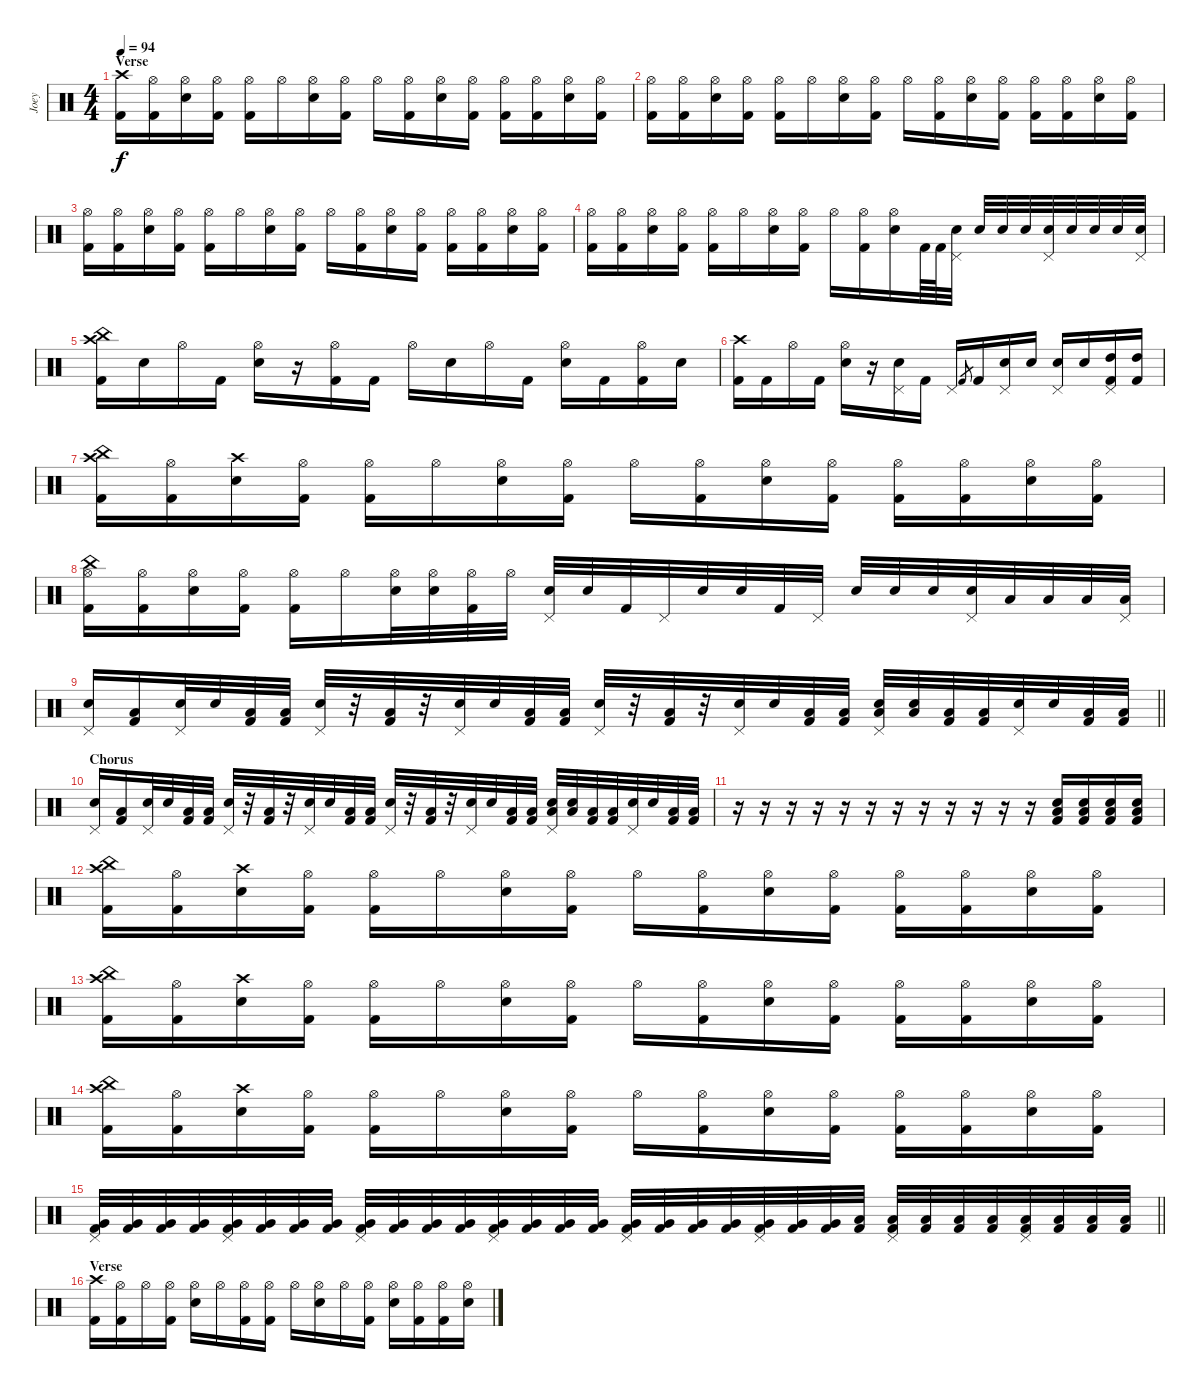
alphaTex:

\track ("Joey" "Joey") {instrument percussion}
\staff {score}
\articulation defaults
\ts (4 4)
\section ("" "Verse")
\tempo 94
\clef neutral
\ks c
("Crash high (hit)" "Kick (hit) 2").16{dy f} ("Hi-Hat (open)" "Kick (hit) 2").16 ("Hi-Hat (open)" "Electric Snare (hit)").16 ("Hi-Hat (open)" "Kick (hit) 2").16 ("Hi-Hat (open)" "Kick (hit) 2").16 "Hi-Hat (open)".16 ("Hi-Hat (open)" "Electric Snare (hit)").16 ("Hi-Hat (open)" "Kick (hit) 2").16 "Hi-Hat (open)".16 ("Hi-Hat (open)" "Kick (hit) 2").16 ("Hi-Hat (open)" "Electric Snare (hit)").16 ("Hi-Hat (open)" "Kick (hit) 2").16 ("Hi-Hat (open)" "Kick (hit) 2").16 ("Hi-Hat (open)" "Kick (hit) 2").16 ("Hi-Hat (open)" "Electric Snare (hit)").16 ("Hi-Hat (open)" "Kick (hit) 2").16 |
("Hi-Hat (open)" "Kick (hit) 2").16 ("Hi-Hat (open)" "Kick (hit) 2").16 ("Hi-Hat (open)" "Electric Snare (hit)").16 ("Hi-Hat (open)" "Kick (hit) 2").16 ("Hi-Hat (open)" "Kick (hit) 2").16 "Hi-Hat (open)".16 ("Hi-Hat (open)" "Electric Snare (hit)").16 ("Hi-Hat (open)" "Kick (hit) 2").16 "Hi-Hat (open)".16 ("Hi-Hat (open)" "Kick (hit) 2").16 ("Hi-Hat (open)" "Electric Snare (hit)").16 ("Hi-Hat (open)" "Kick (hit) 2").16 ("Hi-Hat (open)" "Kick (hit) 2").16 ("Hi-Hat (open)" "Kick (hit) 2").16 ("Hi-Hat (open)" "Electric Snare (hit)").16 ("Hi-Hat (open)" "Kick (hit) 2").16 |
("Hi-Hat (open)" "Kick (hit) 2").16 ("Hi-Hat (open)" "Kick (hit) 2").16 ("Hi-Hat (open)" "Electric Snare (hit)").16 ("Hi-Hat (open)" "Kick (hit) 2").16 ("Hi-Hat (open)" "Kick (hit) 2").16 "Hi-Hat (open)".16 ("Hi-Hat (open)" "Electric Snare (hit)").16 ("Hi-Hat (open)" "Kick (hit) 2").16 "Hi-Hat (open)".16 ("Hi-Hat (open)" "Kick (hit) 2").16 ("Hi-Hat (open)" "Electric Snare (hit)").16 ("Hi-Hat (open)" "Kick (hit) 2").16 ("Hi-Hat (open)" "Kick (hit) 2").16 ("Hi-Hat (open)" "Kick (hit) 2").16 ("Hi-Hat (open)" "Electric Snare (hit)").16 ("Hi-Hat (open)" "Kick (hit) 2").16 |
("Hi-Hat (open)" "Kick (hit) 2").16 ("Hi-Hat (open)" "Kick (hit) 2").16 ("Hi-Hat (open)" "Electric Snare (hit)").16 ("Hi-Hat (open)" "Kick (hit) 2").16 ("Hi-Hat (open)" "Kick (hit) 2").16 "Hi-Hat (open)".16 ("Hi-Hat (open)" "Electric Snare (hit)").16 ("Hi-Hat (open)" "Kick (hit) 2").16 "Hi-Hat (open)".16 ("Hi-Hat (open)" "Kick (hit) 2").16 ("Hi-Hat (open)" "Electric Snare (hit)").16 "Kick (hit) 2".64 "Kick (hit) 2".64 ("Pedal Hi-Hat (hit)" "Electric Snare (hit)").32 "Electric Snare (hit)".32 "Electric Snare (hit)".32 "Electric Snare (hit)".32 ("Pedal Hi-Hat (hit)" "Electric Snare (hit)").32 "Electric Snare (hit)".32 "Electric Snare (hit)".32 "Electric Snare (hit)".32 ("Pedal Hi-Hat (hit)" "Electric Snare (hit)").32 |
("Crash high (hit)" "China (hit)" "Kick (hit) 2").16 "Electric Snare (hit)".16 "Hi-Hat (open)".16 "Kick (hit) 2".16 ("Hi-Hat (open)" "Electric Snare (hit)").16 r.16 ("Hi-Hat (open)" "Kick (hit) 2").16 "Kick (hit) 2".16 "Hi-Hat (open)".16 "Electric Snare (hit)".16 "Hi-Hat (open)".16 "Kick (hit) 2".16 ("Hi-Hat (open)" "Electric Snare (hit)").16 "Kick (hit) 2".16 ("Hi-Hat (open)" "Kick (hit) 2").16 "Electric Snare (hit)".16 |
("Crash high (hit)" "Kick (hit) 2").16 "Kick (hit) 2".16 "Hi-Hat (open)".16 "Kick (hit) 2".16 ("Hi-Hat (open)" "Electric Snare (hit)").16 r.16 ("Pedal Hi-Hat (hit)" "Electric Snare (hit)").16 "Kick (hit) 2".16 "Pedal Hi-Hat (hit)".16 "Kick (hit) 2".8{gr} "Kick (hit) 2".16 ("Pedal Hi-Hat (hit)" "Electric Snare (hit)").16 "Electric Snare (hit)".16 ("Pedal Hi-Hat (hit)" "Electric Snare (hit)").16 "Electric Snare (hit)".16 ("Pedal Hi-Hat (hit)" "High Tom (hit)" "Kick (hit) 2").16 ("High Tom (hit)" "Kick (hit) 2").16 |
("China (hit)" "Crash high (hit)" "Kick (hit) 2").16 ("Hi-Hat (open)" "Kick (hit) 2").16 ("Crash high (hit)" "Electric Snare (hit)").16 ("Hi-Hat (open)" "Kick (hit) 2").16 ("Hi-Hat (open)" "Kick (hit) 2").16 "Hi-Hat (open)".16 ("Hi-Hat (open)" "Electric Snare (hit)").16 ("Hi-Hat (open)" "Kick (hit) 2").16 "Hi-Hat (open)".16 ("Hi-Hat (open)" "Kick (hit) 2").16 ("Hi-Hat (open)" "Electric Snare (hit)").16 ("Hi-Hat (open)" "Kick (hit) 2").16 ("Hi-Hat (open)" "Kick (hit) 2").16 ("Hi-Hat (open)" "Kick (hit) 2").16 ("Hi-Hat (open)" "Electric Snare (hit)").16 ("Hi-Hat (open)" "Kick (hit) 2").16 |
("China (hit)" "Hi-Hat (open)" "Kick (hit) 2").16 ("Hi-Hat (open)" "Kick (hit) 2").16 ("Hi-Hat (open)" "Electric Snare (hit)").16 ("Hi-Hat (open)" "Kick (hit) 2").16 ("Hi-Hat (open)" "Kick (hit) 2").16 "Hi-Hat (open)".16 ("Hi-Hat (open)" "Electric Snare (hit)").32 ("Hi-Hat (open)" "Electric Snare (hit)").32 ("Hi-Hat (open)" "Kick (hit) 2").32 "Hi-Hat (open)".32 ("Pedal Hi-Hat (hit)" "Electric Snare (hit)").32 "Electric Snare (hit)".32 "Kick (hit) 2".32 "Pedal Hi-Hat (hit)".32 "Electric Snare (hit)".32 "Electric Snare (hit)".32 "Kick (hit) 2".32 "Pedal Hi-Hat (hit)".32 "Electric Snare (hit)".32 "Electric Snare (hit)".32 "Electric Snare (hit)".32 ("Pedal Hi-Hat (hit)" "Electric Snare (hit)").32 "Low Tom (hit)".32 "Low Tom (hit)".32 "Low Tom (hit)".32 ("Pedal Hi-Hat (hit)" "Low Tom (hit)").32 |
\barLineRight lightlight
("Pedal Hi-Hat (hit)" "Electric Snare (hit)").16 ("Low Floor Tom (hit)" "Kick (hit) 2").16 ("Pedal Hi-Hat (hit)" "Electric Snare (hit)").32 "Electric Snare (hit)".32 ("Low Floor Tom (hit)" "Kick (hit) 2").32 ("Low Floor Tom (hit)" "Kick (hit) 2").32 ("Pedal Hi-Hat (hit)" "Electric Snare (hit)").32 r.32 ("Low Floor Tom (hit)" "Kick (hit) 2").32 r.32 ("Pedal Hi-Hat (hit)" "Electric Snare (hit)").32 "Electric Snare (hit)".32 ("Low Floor Tom (hit)" "Kick (hit) 2").32 ("Low Floor Tom (hit)" "Kick (hit) 2").32 ("Pedal Hi-Hat (hit)" "Electric Snare (hit)").32 r.32 ("Low Floor Tom (hit)" "Kick (hit) 2").32 r.32 ("Pedal Hi-Hat (hit)" "Electric Snare (hit)").32 "Electric Snare (hit)".32 ("Low Floor Tom (hit)" "Kick (hit) 2").32 ("Low Floor Tom (hit)" "Kick (hit) 2").32 ("Pedal Hi-Hat (hit)" "Low Floor Tom (hit)" "Electric Snare (hit)").32 ("Low Floor Tom (hit)" "Electric Snare (hit)").32 ("Low Floor Tom (hit)" "Kick (hit) 2").32 ("Low Floor Tom (hit)" "Kick (hit) 2").32 ("Pedal Hi-Hat (hit)" "Electric Snare (hit)").32 "Electric Snare (hit)".32 ("Low Floor Tom (hit)" "Kick (hit) 2").32 ("Low Floor Tom (hit)" "Kick (hit) 2").32 |
\section ("" "Chorus")
("Pedal Hi-Hat (hit)" "Electric Snare (hit)").16 ("Low Floor Tom (hit)" "Kick (hit) 2").16 ("Pedal Hi-Hat (hit)" "Electric Snare (hit)").32 "Electric Snare (hit)".32 ("Low Floor Tom (hit)" "Kick (hit) 2").32 ("Low Floor Tom (hit)" "Kick (hit) 2").32 ("Pedal Hi-Hat (hit)" "Electric Snare (hit)").32 r.32 ("Low Floor Tom (hit)" "Kick (hit) 2").32 r.32 ("Pedal Hi-Hat (hit)" "Electric Snare (hit)").32 "Electric Snare (hit)".32 ("Low Floor Tom (hit)" "Kick (hit) 2").32 ("Low Floor Tom (hit)" "Kick (hit) 2").32 ("Pedal Hi-Hat (hit)" "Electric Snare (hit)").32 r.32 ("Low Floor Tom (hit)" "Kick (hit) 2").32 r.32 ("Pedal Hi-Hat (hit)" "Electric Snare (hit)").32 "Electric Snare (hit)".32 ("Low Floor Tom (hit)" "Kick (hit) 2").32 ("Low Floor Tom (hit)" "Kick (hit) 2").32 ("Pedal Hi-Hat (hit)" "Low Floor Tom (hit)" "Electric Snare (hit)").32 ("Low Floor Tom (hit)" "Electric Snare (hit)").32 ("Low Floor Tom (hit)" "Kick (hit) 2").32 ("Low Floor Tom (hit)" "Kick (hit) 2").32 ("Pedal Hi-Hat (hit)" "Electric Snare (hit)").32 "Electric Snare (hit)".32 ("Low Floor Tom (hit)" "Kick (hit) 2").32 ("Low Floor Tom (hit)" "Kick (hit) 2").32 |
r.16 r.16 r.16 r.16 r.16 r.16 r.16 r.16 r.16 r.16 r.16 r.16 ("Kick (hit) 2" "Low Floor Tom (hit)" "Electric Snare (hit)").16 ("Kick (hit) 2" "Low Floor Tom (hit)" "Electric Snare (hit)").16 ("Kick (hit) 2" "Low Floor Tom (hit)" "Electric Snare (hit)").16 ("Kick (hit) 2" "Low Floor Tom (hit)" "Electric Snare (hit)").16 |
("China (hit)" "Crash high (hit)" "Kick (hit) 2").16 ("Hi-Hat (open)" "Kick (hit) 2").16 ("Crash high (hit)" "Electric Snare (hit)").16 ("Hi-Hat (open)" "Kick (hit) 2").16 ("Hi-Hat (open)" "Kick (hit) 2").16 "Hi-Hat (open)".16 ("Hi-Hat (open)" "Electric Snare (hit)").16 ("Hi-Hat (open)" "Kick (hit) 2").16 "Hi-Hat (open)".16 ("Hi-Hat (open)" "Kick (hit) 2").16 ("Hi-Hat (open)" "Electric Snare (hit)").16 ("Hi-Hat (open)" "Kick (hit) 2").16 ("Hi-Hat (open)" "Kick (hit) 2").16 ("Hi-Hat (open)" "Kick (hit) 2").16 ("Hi-Hat (open)" "Electric Snare (hit)").16 ("Hi-Hat (open)" "Kick (hit) 2").16 |
("China (hit)" "Crash high (hit)" "Kick (hit) 2").16 ("Hi-Hat (open)" "Kick (hit) 2").16 ("Crash high (hit)" "Electric Snare (hit)").16 ("Hi-Hat (open)" "Kick (hit) 2").16 ("Hi-Hat (open)" "Kick (hit) 2").16 "Hi-Hat (open)".16 ("Hi-Hat (open)" "Electric Snare (hit)").16 ("Hi-Hat (open)" "Kick (hit) 2").16 "Hi-Hat (open)".16 ("Hi-Hat (open)" "Kick (hit) 2").16 ("Hi-Hat (open)" "Electric Snare (hit)").16 ("Hi-Hat (open)" "Kick (hit) 2").16 ("Hi-Hat (open)" "Kick (hit) 2").16 ("Hi-Hat (open)" "Kick (hit) 2").16 ("Hi-Hat (open)" "Electric Snare (hit)").16 ("Hi-Hat (open)" "Kick (hit) 2").16 |
("China (hit)" "Crash high (hit)" "Kick (hit) 2").16 ("Hi-Hat (open)" "Kick (hit) 2").16 ("Crash high (hit)" "Electric Snare (hit)").16 ("Hi-Hat (open)" "Kick (hit) 2").16 ("Hi-Hat (open)" "Kick (hit) 2").16 "Hi-Hat (open)".16 ("Hi-Hat (open)" "Electric Snare (hit)").16 ("Hi-Hat (open)" "Kick (hit) 2").16 "Hi-Hat (open)".16 ("Hi-Hat (open)" "Kick (hit) 2").16 ("Hi-Hat (open)" "Electric Snare (hit)").16 ("Hi-Hat (open)" "Kick (hit) 2").16 ("Hi-Hat (open)" "Kick (hit) 2").16 ("Hi-Hat (open)" "Kick (hit) 2").16 ("Hi-Hat (open)" "Electric Snare (hit)").16 ("Hi-Hat (open)" "Kick (hit) 2").16 |
\barLineRight lightlight
("Pedal Hi-Hat (hit)" "Very Low Tom (hit)" "Kick (hit) 2").32 ("Very Low Tom (hit)" "Kick (hit) 2").32 ("Very Low Tom (hit)" "Kick (hit) 2").32 ("Very Low Tom (hit)" "Kick (hit) 2").32 ("Pedal Hi-Hat (hit)" "Very Low Tom (hit)" "Kick (hit) 2").32 ("Very Low Tom (hit)" "Kick (hit) 2").32 ("Very Low Tom (hit)" "Kick (hit) 2").32 ("Very Low Tom (hit)" "Kick (hit) 2").32 ("Pedal Hi-Hat (hit)" "Very Low Tom (hit)" "Kick (hit) 2").32 ("Very Low Tom (hit)" "Kick (hit) 2").32 ("Very Low Tom (hit)" "Kick (hit) 2").32 ("Very Low Tom (hit)" "Kick (hit) 2").32 ("Pedal Hi-Hat (hit)" "Very Low Tom (hit)" "Kick (hit) 2").32 ("Very Low Tom (hit)" "Kick (hit) 2").32 ("Very Low Tom (hit)" "Kick (hit) 2").32 ("Very Low Tom (hit)" "Kick (hit) 2").32 ("Pedal Hi-Hat (hit)" "Very Low Tom (hit)" "Kick (hit) 2").32 ("Very Low Tom (hit)" "Kick (hit) 2").32 ("Very Low Tom (hit)" "Kick (hit) 2").32 ("Very Low Tom (hit)" "Kick (hit) 2").32 ("Pedal Hi-Hat (hit)" "Very Low Tom (hit)" "Kick (hit) 2").32 ("Very Low Tom (hit)" "Kick (hit) 2").32 ("Very Low Tom (hit)" "Kick (hit) 2").32 ("Low Floor Tom (hit)" "Kick (hit) 2").32 ("Pedal Hi-Hat (hit)" "Low Floor Tom (hit)" "Kick (hit) 2").32 ("Low Floor Tom (hit)" "Kick (hit) 2").32 ("Low Floor Tom (hit)" "Kick (hit) 2").32 ("Low Floor Tom (hit)" "Kick (hit) 2").32 ("Pedal Hi-Hat (hit)" "Low Floor Tom (hit)" "Kick (hit) 2").32 ("Low Floor Tom (hit)" "Kick (hit) 2").32 ("Low Floor Tom (hit)" "Kick (hit) 2").32 ("Low Floor Tom (hit)" "Kick (hit) 2").32 |
\section ("" "Verse")
("Crash high (hit)" "Kick (hit) 2").16 ("Hi-Hat (open)" "Kick (hit) 2").16 "Hi-Hat (open)".16 ("Hi-Hat (open)" "Kick (hit) 2").16 ("Hi-Hat (open)" "Electric Snare (hit)").16 "Hi-Hat (open)".16 ("Hi-Hat (open)" "Kick (hit) 2").16 ("Hi-Hat (open)" "Kick (hit) 2").16 "Hi-Hat (open)".16 ("Hi-Hat (open)" "Electric Snare (hit)").16 "Hi-Hat (open)".16 ("Hi-Hat (open)" "Kick (hit) 2").16 ("Hi-Hat (open)" "Electric Snare (hit)").16 ("Hi-Hat (open)" "Kick (hit) 2").16 ("Hi-Hat (open)" "Kick (hit) 2").16 ("Hi-Hat (open)" "Electric Snare (hit)").16
